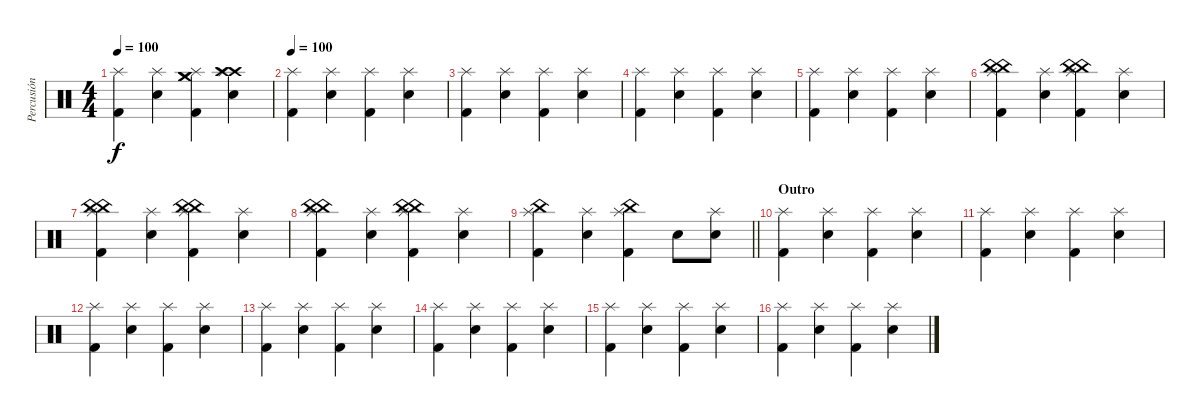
\track ("Percusión" "Percusión") {instrument percussion}
\staff {score}
\articulation defaults
\ts (4 4)
\tempo 100
\clef neutral
\ks c
("Splash (hit)" "Kick (hit) 2").4{dy f} ("Splash (hit)" "Snare (hit) 2").4 ("Crash medium (hit)" "Crash medium (hit)" "Splash (hit)" "Kick (hit) 2").4 ("Crash high (hit)" "Crash high (hit)" "Splash (hit)" "Snare (hit) 2").4 |
\tempo 100
("Splash (hit)" "Kick (hit) 2").4 ("Splash (hit)" "Snare (hit) 2").4 ("Splash (hit)" "Kick (hit) 2").4 ("Splash (hit)" "Snare (hit) 2").4 |
("Splash (hit)" "Kick (hit) 2").4 ("Splash (hit)" "Snare (hit) 2").4 ("Splash (hit)" "Kick (hit) 2").4 ("Splash (hit)" "Snare (hit) 2").4 |
("Splash (hit)" "Kick (hit) 2").4 ("Splash (hit)" "Snare (hit) 2").4 ("Splash (hit)" "Kick (hit) 2").4 ("Splash (hit)" "Snare (hit) 2").4 |
("Splash (hit)" "Kick (hit) 2").4 ("Splash (hit)" "Snare (hit) 2").4 ("Splash (hit)" "Kick (hit) 2").4 ("Splash (hit)" "Snare (hit) 2").4 |
("China (hit)" "China (hit)" "Splash (hit)" "Kick (hit) 2").4{volume 16} ("Splash (hit)" "Snare (hit) 2").4 ("China (hit)" "China (hit)" "Splash (hit)" "Kick (hit) 2").4 ("Splash (hit)" "Snare (hit) 2").4 |
("China (hit)" "China (hit)" "Splash (hit)" "Kick (hit) 2").4 ("Splash (hit)" "Snare (hit) 2").4 ("China (hit)" "China (hit)" "Splash (hit)" "Kick (hit) 2").4 ("Splash (hit)" "Snare (hit) 2").4 |
("China (hit)" "China (hit)" "Splash (hit)" "Kick (hit) 2").4 ("Splash (hit)" "Snare (hit) 2").4 ("China (hit)" "China (hit)" "Splash (hit)" "Kick (hit) 2").4 ("Splash (hit)" "Snare (hit) 2").4 |
\barLineRight lightlight
("China (hit)" "Splash (hit)" "Kick (hit) 2").4 ("Splash (hit)" "Snare (hit) 2").4 ("China (hit)" "Splash (hit)" "Kick (hit) 2").4 "Snare (hit) 2".8 ("Splash (hit)" "Snare (hit) 2").8 |
\section ("" "Outro")
("Splash (hit)" "Kick (hit) 2").4 ("Splash (hit)" "Snare (hit) 2").4 ("Splash (hit)" "Kick (hit) 2").4 ("Splash (hit)" "Snare (hit) 2").4 |
("Splash (hit)" "Kick (hit) 2").4 ("Splash (hit)" "Snare (hit) 2").4 ("Splash (hit)" "Kick (hit) 2").4 ("Splash (hit)" "Snare (hit) 2").4 |
("Splash (hit)" "Kick (hit) 2").4 ("Splash (hit)" "Snare (hit) 2").4 ("Splash (hit)" "Kick (hit) 2").4 ("Splash (hit)" "Snare (hit) 2").4 |
("Splash (hit)" "Kick (hit) 2").4 ("Splash (hit)" "Snare (hit) 2").4 ("Splash (hit)" "Kick (hit) 2").4 ("Splash (hit)" "Snare (hit) 2").4 |
("Splash (hit)" "Kick (hit) 2").4 ("Splash (hit)" "Snare (hit) 2").4 ("Splash (hit)" "Kick (hit) 2").4 ("Splash (hit)" "Snare (hit) 2").4 |
("Splash (hit)" "Kick (hit) 2").4 ("Splash (hit)" "Snare (hit) 2").4 ("Splash (hit)" "Kick (hit) 2").4 ("Splash (hit)" "Snare (hit) 2").4 |
("Splash (hit)" "Kick (hit) 2").4 ("Splash (hit)" "Snare (hit) 2").4 ("Splash (hit)" "Kick (hit) 2").4 ("Splash (hit)" "Snare (hit) 2").4
